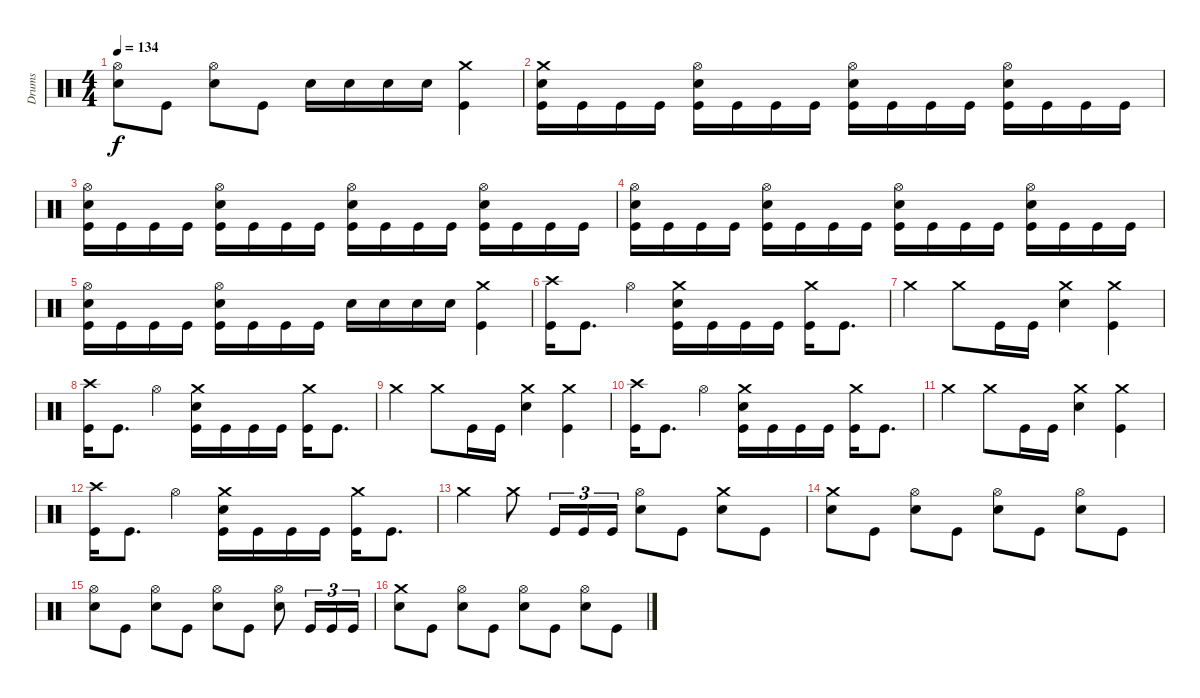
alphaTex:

\track ("Drums" "Drums") {instrument percussion}
\staff {score}
\articulation defaults
\ts (4 4)
\tempo 134
\clef neutral
\ks c
("Hi-Hat (open)" "Snare (hit) 2").8{dy f} "Kick (hit)".8 ("Hi-Hat (open)" "Snare (hit) 2").8 "Kick (hit)".8 "Snare (hit) 2".16 "Snare (hit) 2".16 "Snare (hit) 2".16 "Snare (hit) 2".16 ("Crash medium (hit)" "Kick (hit)").4 |
("Snare (hit) 2" "Crash medium (hit)" "Kick (hit)").16 "Kick (hit)".16 "Kick (hit)".16 "Kick (hit)".16 ("Snare (hit) 2" "Hi-Hat (open)" "Kick (hit)").16 "Kick (hit)".16 "Kick (hit)".16 "Kick (hit)".16 ("Snare (hit) 2" "Hi-Hat (open)" "Kick (hit)").16 "Kick (hit)".16 "Kick (hit)".16 "Kick (hit)".16 ("Snare (hit) 2" "Hi-Hat (open)" "Kick (hit)").16 "Kick (hit)".16 "Kick (hit)".16 "Kick (hit)".16 |
("Snare (hit) 2" "Hi-Hat (open)" "Kick (hit)").16 "Kick (hit)".16 "Kick (hit)".16 "Kick (hit)".16 ("Snare (hit) 2" "Hi-Hat (open)" "Kick (hit)").16 "Kick (hit)".16 "Kick (hit)".16 "Kick (hit)".16 ("Snare (hit) 2" "Hi-Hat (open)" "Kick (hit)").16 "Kick (hit)".16 "Kick (hit)".16 "Kick (hit)".16 ("Snare (hit) 2" "Hi-Hat (open)" "Kick (hit)").16 "Kick (hit)".16 "Kick (hit)".16 "Kick (hit)".16 |
("Snare (hit) 2" "Hi-Hat (open)" "Kick (hit)").16 "Kick (hit)".16 "Kick (hit)".16 "Kick (hit)".16 ("Snare (hit) 2" "Hi-Hat (open)" "Kick (hit)").16 "Kick (hit)".16 "Kick (hit)".16 "Kick (hit)".16 ("Snare (hit) 2" "Hi-Hat (open)" "Kick (hit)").16 "Kick (hit)".16 "Kick (hit)".16 "Kick (hit)".16 ("Snare (hit) 2" "Hi-Hat (open)" "Kick (hit)").16 "Kick (hit)".16 "Kick (hit)".16 "Kick (hit)".16 |
("Snare (hit) 2" "Hi-Hat (open)" "Kick (hit)").16 "Kick (hit)".16 "Kick (hit)".16 "Kick (hit)".16 ("Snare (hit) 2" "Hi-Hat (open)" "Kick (hit)").16 "Kick (hit)".16 "Kick (hit)".16 "Kick (hit)".16 "Snare (hit) 2".16 "Snare (hit) 2".16 "Snare (hit) 2".16 "Snare (hit) 2".16 ("Crash medium (hit)" "Kick (hit)").4 |
("Crash high (hit)" "Kick (hit)").16 "Kick (hit)".8{d} "Hi-Hat (open)".4 ("Kick (hit)" "Crash medium (hit)" "Snare (hit) 2").16 "Kick (hit)".16 "Kick (hit)".16 "Kick (hit)".16 ("Crash medium (hit)" "Kick (hit)").16 "Kick (hit)".8{d} |
"Crash medium (hit)".4 "Crash medium (hit)".8 "Kick (hit)".16 "Kick (hit)".16 ("Crash medium (hit)" "Snare (hit) 2").4 ("Crash medium (hit)" "Kick (hit)").4 |
("Crash high (hit)" "Kick (hit)").16 "Kick (hit)".8{d} "Hi-Hat (open)".4 ("Kick (hit)" "Crash medium (hit)" "Snare (hit) 2").16 "Kick (hit)".16 "Kick (hit)".16 "Kick (hit)".16 ("Crash medium (hit)" "Kick (hit)").16 "Kick (hit)".8{d} |
"Crash medium (hit)".4 "Crash medium (hit)".8 "Kick (hit)".16 "Kick (hit)".16 ("Crash medium (hit)" "Snare (hit) 2").4 ("Crash medium (hit)" "Kick (hit)").4 |
("Crash high (hit)" "Kick (hit)").16 "Kick (hit)".8{d} "Hi-Hat (open)".4 ("Kick (hit)" "Crash medium (hit)" "Snare (hit) 2").16 "Kick (hit)".16 "Kick (hit)".16 "Kick (hit)".16 ("Crash medium (hit)" "Kick (hit)").16 "Kick (hit)".8{d} |
"Crash medium (hit)".4 "Crash medium (hit)".8 "Kick (hit)".16 "Kick (hit)".16 ("Crash medium (hit)" "Snare (hit) 2").4 ("Crash medium (hit)" "Kick (hit)").4 |
("Crash high (hit)" "Kick (hit)").16 "Kick (hit)".8{d} "Hi-Hat (open)".4 ("Kick (hit)" "Crash medium (hit)" "Snare (hit) 2").16 "Kick (hit)".16 "Kick (hit)".16 "Kick (hit)".16 ("Crash medium (hit)" "Kick (hit)").16 "Kick (hit)".8{d} |
"Crash medium (hit)".4 "Crash medium (hit)".8 "Kick (hit)".16{tu (3 2)} "Kick (hit)".16{tu (3 2)} "Kick (hit)".16{tu (3 2)} ("Hi-Hat (open)" "Snare (hit) 2").8 "Kick (hit)".8 ("Crash medium (hit)" "Snare (hit) 2").8 "Kick (hit)".8 |
("Crash medium (hit)" "Snare (hit) 2").8 "Kick (hit)".8 ("Hi-Hat (open)" "Snare (hit) 2").8 "Kick (hit)".8 ("Hi-Hat (open)" "Snare (hit) 2").8 "Kick (hit)".8 ("Hi-Hat (open)" "Snare (hit) 2").8 "Kick (hit)".8 |
("Hi-Hat (open)" "Snare (hit) 2").8 "Kick (hit)".8 ("Hi-Hat (open)" "Snare (hit) 2").8 "Kick (hit)".8 ("Hi-Hat (open)" "Snare (hit) 2").8 "Kick (hit)".8 ("Hi-Hat (open)" "Snare (hit) 2").8 "Kick (hit)".16{tu (3 2)} "Kick (hit)".16{tu (3 2)} "Kick (hit)".16{tu (3 2)} |
("Crash medium (hit)" "Snare (hit) 2").8 "Kick (hit)".8 ("Hi-Hat (open)" "Snare (hit) 2").8 "Kick (hit)".8 ("Hi-Hat (open)" "Snare (hit) 2").8 "Kick (hit)".8 ("Hi-Hat (open)" "Snare (hit) 2").8 "Kick (hit)".8
